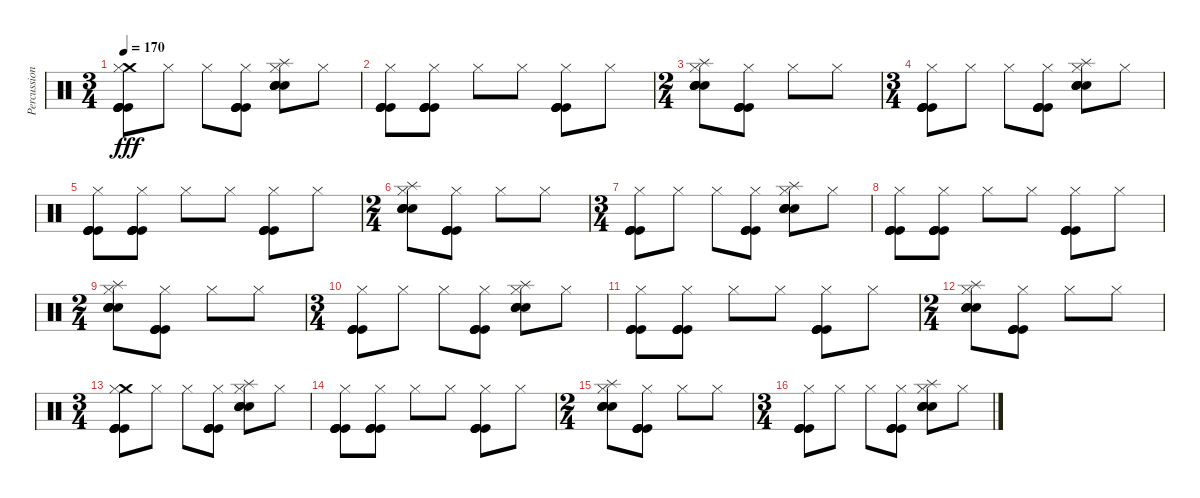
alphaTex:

\track ("Percussion" "Percussion") {instrument percussion}
\staff {score}
\articulation defaults
\ts (3 4)
\tempo 170
\clef neutral
\ks c
("Crash medium (hit)" "Hi-Hat (closed)" "Kick (hit)" "Kick (hit)" "Kick (hit)" "Kick (hit)").8{dy fff} "Hi-Hat (closed)".8 "Hi-Hat (closed)".8 ("Hi-Hat (closed)" "Kick (hit)" "Kick (hit)" "Kick (hit)" "Kick (hit)").8 ("Splash (hit)" "Hi-Hat (closed)" "Hand Clap (hit)" "Hand Clap (hit)" "Hand Clap (hit)" "Hand Clap (hit)").8 "Hi-Hat (closed)".8 |
("Hi-Hat (closed)" "Kick (hit)" "Kick (hit)" "Kick (hit)" "Kick (hit)").8 ("Hi-Hat (closed)" "Kick (hit)" "Kick (hit)" "Kick (hit)" "Kick (hit)").8 "Hi-Hat (closed)".8 "Hi-Hat (closed)".8 ("Hi-Hat (closed)" "Kick (hit)" "Kick (hit)" "Kick (hit)" "Kick (hit)").8 "Hi-Hat (closed)".8 |
\ts (2 4)
("Splash (hit)" "Hi-Hat (closed)" "Hand Clap (hit)" "Hand Clap (hit)" "Hand Clap (hit)" "Hand Clap (hit)").8 ("Hi-Hat (closed)" "Kick (hit)" "Kick (hit)" "Kick (hit)" "Kick (hit)").8 "Hi-Hat (closed)".8 "Hi-Hat (closed)".8 |
\ts (3 4)
("Hi-Hat (closed)" "Kick (hit)" "Kick (hit)" "Kick (hit)" "Kick (hit)").8 "Hi-Hat (closed)".8 "Hi-Hat (closed)".8 ("Hi-Hat (closed)" "Kick (hit)" "Kick (hit)" "Kick (hit)" "Kick (hit)").8 ("Splash (hit)" "Hi-Hat (closed)" "Hand Clap (hit)" "Hand Clap (hit)" "Hand Clap (hit)" "Hand Clap (hit)").8 "Hi-Hat (closed)".8 |
("Hi-Hat (closed)" "Kick (hit)" "Kick (hit)" "Kick (hit)" "Kick (hit)").8 ("Hi-Hat (closed)" "Kick (hit)" "Kick (hit)" "Kick (hit)" "Kick (hit)").8 "Hi-Hat (closed)".8 "Hi-Hat (closed)".8 ("Hi-Hat (closed)" "Kick (hit)" "Kick (hit)" "Kick (hit)" "Kick (hit)").8 "Hi-Hat (closed)".8 |
\ts (2 4)
("Splash (hit)" "Hi-Hat (closed)" "Hand Clap (hit)" "Hand Clap (hit)" "Hand Clap (hit)" "Hand Clap (hit)").8 ("Hi-Hat (closed)" "Kick (hit)" "Kick (hit)" "Kick (hit)" "Kick (hit)").8 "Hi-Hat (closed)".8 "Hi-Hat (closed)".8 |
\ts (3 4)
("Hi-Hat (closed)" "Kick (hit)" "Kick (hit)" "Kick (hit)" "Kick (hit)").8 "Hi-Hat (closed)".8 "Hi-Hat (closed)".8 ("Hi-Hat (closed)" "Kick (hit)" "Kick (hit)" "Kick (hit)" "Kick (hit)").8 ("Splash (hit)" "Hi-Hat (closed)" "Hand Clap (hit)" "Hand Clap (hit)" "Hand Clap (hit)" "Hand Clap (hit)").8 "Hi-Hat (closed)".8 |
("Hi-Hat (closed)" "Kick (hit)" "Kick (hit)" "Kick (hit)" "Kick (hit)").8 ("Hi-Hat (closed)" "Kick (hit)" "Kick (hit)" "Kick (hit)" "Kick (hit)").8 "Hi-Hat (closed)".8 "Hi-Hat (closed)".8 ("Hi-Hat (closed)" "Kick (hit)" "Kick (hit)" "Kick (hit)" "Kick (hit)").8 "Hi-Hat (closed)".8 |
\ts (2 4)
("Splash (hit)" "Hi-Hat (closed)" "Hand Clap (hit)" "Hand Clap (hit)" "Hand Clap (hit)" "Hand Clap (hit)").8 ("Hi-Hat (closed)" "Kick (hit)" "Kick (hit)" "Kick (hit)" "Kick (hit)").8 "Hi-Hat (closed)".8 "Hi-Hat (closed)".8 |
\ts (3 4)
("Hi-Hat (closed)" "Kick (hit)" "Kick (hit)" "Kick (hit)" "Kick (hit)").8 "Hi-Hat (closed)".8 "Hi-Hat (closed)".8 ("Hi-Hat (closed)" "Kick (hit)" "Kick (hit)" "Kick (hit)" "Kick (hit)").8 ("Splash (hit)" "Hi-Hat (closed)" "Hand Clap (hit)" "Hand Clap (hit)" "Hand Clap (hit)" "Hand Clap (hit)").8 "Hi-Hat (closed)".8 |
("Hi-Hat (closed)" "Kick (hit)" "Kick (hit)" "Kick (hit)" "Kick (hit)").8 ("Hi-Hat (closed)" "Kick (hit)" "Kick (hit)" "Kick (hit)" "Kick (hit)").8 "Hi-Hat (closed)".8 "Hi-Hat (closed)".8 ("Hi-Hat (closed)" "Kick (hit)" "Kick (hit)" "Kick (hit)" "Kick (hit)").8 "Hi-Hat (closed)".8 |
\ts (2 4)
("Splash (hit)" "Hi-Hat (closed)" "Hand Clap (hit)" "Hand Clap (hit)" "Hand Clap (hit)" "Hand Clap (hit)").8 ("Hi-Hat (closed)" "Kick (hit)" "Kick (hit)" "Kick (hit)" "Kick (hit)").8 "Hi-Hat (closed)".8 "Hi-Hat (closed)".8 |
\ts (3 4)
("Crash medium (hit)" "Hi-Hat (closed)" "Kick (hit)" "Kick (hit)" "Kick (hit)" "Kick (hit)").8 "Hi-Hat (closed)".8 "Hi-Hat (closed)".8 ("Hi-Hat (closed)" "Kick (hit)" "Kick (hit)" "Kick (hit)" "Kick (hit)").8 ("Splash (hit)" "Hi-Hat (closed)" "Hand Clap (hit)" "Hand Clap (hit)" "Hand Clap (hit)" "Hand Clap (hit)").8 "Hi-Hat (closed)".8 |
("Hi-Hat (closed)" "Kick (hit)" "Kick (hit)" "Kick (hit)" "Kick (hit)").8 ("Hi-Hat (closed)" "Kick (hit)" "Kick (hit)" "Kick (hit)" "Kick (hit)").8 "Hi-Hat (closed)".8 "Hi-Hat (closed)".8 ("Hi-Hat (closed)" "Kick (hit)" "Kick (hit)" "Kick (hit)" "Kick (hit)").8 "Hi-Hat (closed)".8 |
\ts (2 4)
("Splash (hit)" "Hi-Hat (closed)" "Hand Clap (hit)" "Hand Clap (hit)" "Hand Clap (hit)" "Hand Clap (hit)").8 ("Hi-Hat (closed)" "Kick (hit)" "Kick (hit)" "Kick (hit)" "Kick (hit)").8 "Hi-Hat (closed)".8 "Hi-Hat (closed)".8 |
\ts (3 4)
("Hi-Hat (closed)" "Kick (hit)" "Kick (hit)" "Kick (hit)" "Kick (hit)").8 "Hi-Hat (closed)".8 "Hi-Hat (closed)".8 ("Hi-Hat (closed)" "Kick (hit)" "Kick (hit)" "Kick (hit)" "Kick (hit)").8 ("Splash (hit)" "Hi-Hat (closed)" "Hand Clap (hit)" "Hand Clap (hit)" "Hand Clap (hit)" "Hand Clap (hit)").8 "Hi-Hat (closed)".8
